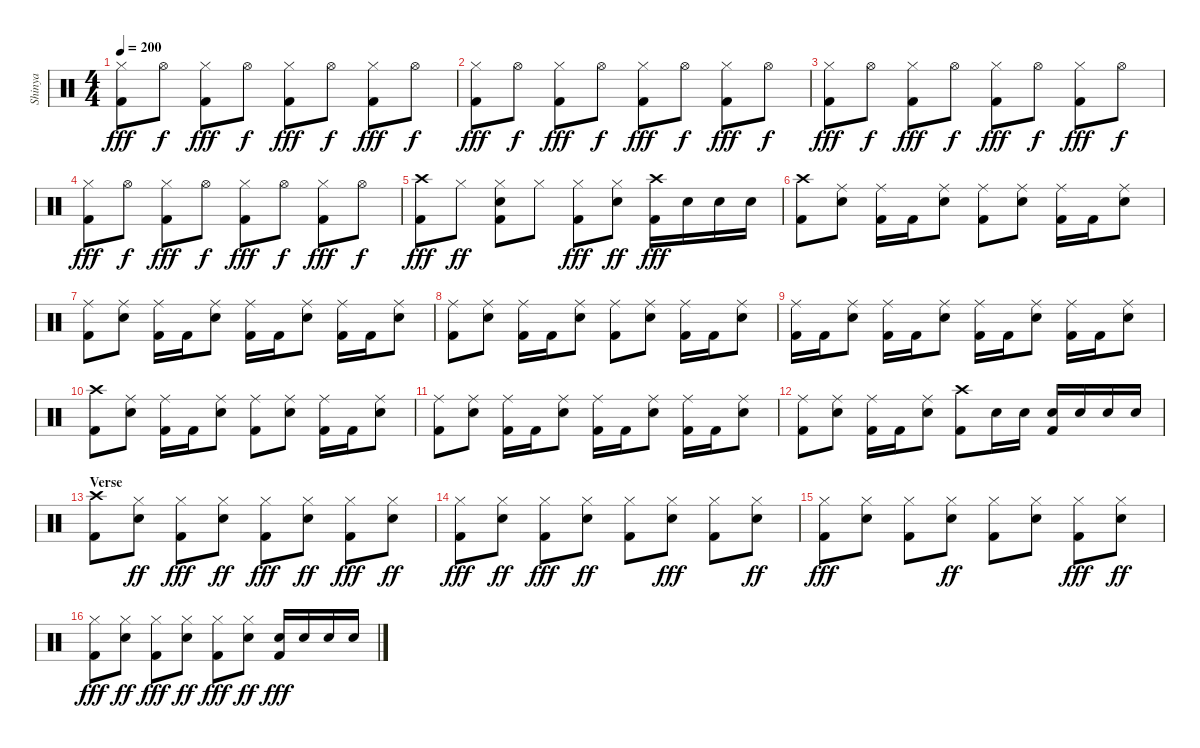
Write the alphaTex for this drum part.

\track ("Shinya" "Shinya") {instrument percussion}
\staff {score}
\articulation defaults
\ts (4 4)
\tempo 200
\clef neutral
\ks c
("Hi-Hat (closed)" "Kick (hit) 2").8{dy fff} "Hi-Hat (open)".8{dy f} ("Hi-Hat (closed)" "Kick (hit) 2").8{dy fff} "Hi-Hat (open)".8{dy f} ("Hi-Hat (closed)" "Kick (hit) 2").8{dy fff} "Hi-Hat (open)".8{dy f} ("Hi-Hat (closed)" "Kick (hit) 2").8{dy fff} "Hi-Hat (open)".8{dy f} |
("Hi-Hat (closed)" "Kick (hit) 2").8{dy fff} "Hi-Hat (open)".8{dy f} ("Hi-Hat (closed)" "Kick (hit) 2").8{dy fff} "Hi-Hat (open)".8{dy f} ("Hi-Hat (closed)" "Kick (hit) 2").8{dy fff} "Hi-Hat (open)".8{dy f} ("Hi-Hat (closed)" "Kick (hit) 2").8{dy fff} "Hi-Hat (open)".8{dy f} |
("Hi-Hat (closed)" "Kick (hit) 2").8{dy fff} "Hi-Hat (open)".8{dy f} ("Hi-Hat (closed)" "Kick (hit) 2").8{dy fff} "Hi-Hat (open)".8{dy f} ("Hi-Hat (closed)" "Kick (hit) 2").8{dy fff} "Hi-Hat (open)".8{dy f} ("Hi-Hat (closed)" "Kick (hit) 2").8{dy fff} "Hi-Hat (open)".8{dy f} |
("Hi-Hat (closed)" "Kick (hit) 2").8{dy fff} "Hi-Hat (open)".8{dy f} ("Hi-Hat (closed)" "Kick (hit) 2").8{dy fff} "Hi-Hat (open)".8{dy f} ("Hi-Hat (closed)" "Kick (hit) 2").8{dy fff} "Hi-Hat (open)".8{dy f} ("Hi-Hat (closed)" "Kick (hit) 2").8{dy fff} "Hi-Hat (open)".8{dy f} |
("Crash high (hit)" "Kick (hit) 2").8{dy fff} "Hi-Hat (closed)".8{dy ff} ("Kick (hit) 2" "Snare (hit) 2" "Hi-Hat (closed)").8 "Hi-Hat (closed)".8 ("Hi-Hat (closed)" "Kick (hit) 2").8{dy fff} ("Snare (hit) 2" "Hi-Hat (closed)").8{dy ff} ("Crash high (hit)" "Kick (hit) 2").16{dy fff} "Snare (hit) 2".16 "Snare (hit) 2".16 "Snare (hit) 2".16 |
("Kick (hit) 2" "Crash high (hit)").8 ("Snare (hit) 2" "Ride (middle)").8 ("Ride (middle)" "Kick (hit) 2").16 "Kick (hit) 2".16 ("Snare (hit) 2" "Ride (middle)").8 ("Ride (middle)" "Kick (hit) 2").8 ("Snare (hit) 2" "Ride (middle)").8 ("Ride (middle)" "Kick (hit) 2").16 "Kick (hit) 2".16 ("Snare (hit) 2" "Ride (middle)").8 |
("Ride (middle)" "Kick (hit) 2").8 ("Snare (hit) 2" "Ride (middle)").8 ("Ride (middle)" "Kick (hit) 2").16 "Kick (hit) 2".16 ("Snare (hit) 2" "Ride (middle)").8 ("Ride (middle)" "Kick (hit) 2").16 "Kick (hit) 2".16 ("Snare (hit) 2" "Ride (middle)").8 ("Ride (middle)" "Kick (hit) 2").16 "Kick (hit) 2".16 ("Snare (hit) 2" "Ride (middle)").8 |
("Ride (middle)" "Kick (hit) 2").8 ("Snare (hit) 2" "Ride (middle)").8 ("Ride (middle)" "Kick (hit) 2").16 "Kick (hit) 2".16 ("Snare (hit) 2" "Ride (middle)").8 ("Ride (middle)" "Kick (hit) 2").8 ("Snare (hit) 2" "Ride (middle)").8 ("Ride (middle)" "Kick (hit) 2").16 "Kick (hit) 2".16 ("Snare (hit) 2" "Ride (middle)").8 |
("Ride (middle)" "Kick (hit) 2").16 "Kick (hit) 2".16 ("Snare (hit) 2" "Ride (middle)").8 ("Ride (middle)" "Kick (hit) 2").16 "Kick (hit) 2".16 ("Snare (hit) 2" "Ride (middle)").8 ("Ride (middle)" "Kick (hit) 2").16 "Kick (hit) 2".16 ("Snare (hit) 2" "Ride (middle)").8 ("Ride (middle)" "Kick (hit) 2").16 "Kick (hit) 2".16 ("Snare (hit) 2" "Ride (middle)").8 |
("Kick (hit) 2" "Crash high (hit)").8 ("Snare (hit) 2" "Ride (middle)").8 ("Ride (middle)" "Kick (hit) 2").16 "Kick (hit) 2".16 ("Snare (hit) 2" "Ride (middle)").8 ("Ride (middle)" "Kick (hit) 2").8 ("Snare (hit) 2" "Ride (middle)").8 ("Ride (middle)" "Kick (hit) 2").16 "Kick (hit) 2".16 ("Snare (hit) 2" "Ride (middle)").8 |
("Ride (middle)" "Kick (hit) 2").8 ("Snare (hit) 2" "Ride (middle)").8 ("Ride (middle)" "Kick (hit) 2").16 "Kick (hit) 2".16 ("Snare (hit) 2" "Ride (middle)").8 ("Ride (middle)" "Kick (hit) 2").16 "Kick (hit) 2".16 ("Snare (hit) 2" "Ride (middle)").8 ("Ride (middle)" "Kick (hit) 2").16 "Kick (hit) 2".16 ("Snare (hit) 2" "Ride (middle)").8 |
("Ride (middle)" "Kick (hit) 2").8 ("Snare (hit) 2" "Ride (middle)").8 ("Ride (middle)" "Kick (hit) 2").16 "Kick (hit) 2".16 ("Snare (hit) 2" "Ride (middle)").8 ("Kick (hit) 2" "Crash high (hit)").8 "Snare (hit) 2".16 "Snare (hit) 2".16 ("Snare (hit) 2" "Kick (hit) 2").16 "Snare (hit) 2".16 "Snare (hit) 2".16 "Snare (hit) 2".16 |
\section ("" "Verse")
("Crash high (hit)" "Kick (hit) 2").8 ("Snare (hit) 2" "Hi-Hat (closed)").8{dy ff} ("Hi-Hat (closed)" "Kick (hit) 2").8{dy fff} ("Snare (hit) 2" "Hi-Hat (closed)").8{dy ff} ("Hi-Hat (closed)" "Kick (hit) 2").8{dy fff} ("Snare (hit) 2" "Hi-Hat (closed)").8{dy ff} ("Hi-Hat (closed)" "Kick (hit) 2").8{dy fff} ("Snare (hit) 2" "Hi-Hat (closed)").8{dy ff} |
("Hi-Hat (closed)" "Kick (hit) 2").8{dy fff} ("Snare (hit) 2" "Hi-Hat (closed)").8{dy ff} ("Hi-Hat (closed)" "Kick (hit) 2").8{dy fff} ("Snare (hit) 2" "Hi-Hat (closed)").8{dy ff} ("Kick (hit) 2" "Hi-Hat (closed)").8 ("Hi-Hat (closed)" "Snare (hit) 2").8{dy fff} ("Hi-Hat (closed)" "Kick (hit) 2").8 ("Snare (hit) 2" "Hi-Hat (closed)").8{dy ff} |
("Hi-Hat (closed)" "Kick (hit) 2").8{dy fff} ("Hi-Hat (closed)" "Snare (hit) 2").8 ("Hi-Hat (closed)" "Kick (hit) 2").8 ("Snare (hit) 2" "Hi-Hat (closed)").8{dy ff} ("Kick (hit) 2" "Hi-Hat (closed)").8 ("Snare (hit) 2" "Hi-Hat (closed)").8 ("Hi-Hat (closed)" "Kick (hit) 2").8{dy fff} ("Snare (hit) 2" "Hi-Hat (closed)").8{dy ff} |
("Hi-Hat (closed)" "Kick (hit) 2").8{dy fff} ("Snare (hit) 2" "Hi-Hat (closed)").8{dy ff} ("Hi-Hat (closed)" "Kick (hit) 2").8{dy fff} ("Snare (hit) 2" "Hi-Hat (closed)").8{dy ff} ("Hi-Hat (closed)" "Kick (hit) 2").8{dy fff} ("Snare (hit) 2" "Hi-Hat (closed)").8{dy ff} ("Snare (hit) 2" "Kick (hit) 2").16{dy fff} "Snare (hit) 2".16 "Snare (hit) 2".16 "Snare (hit) 2".16
